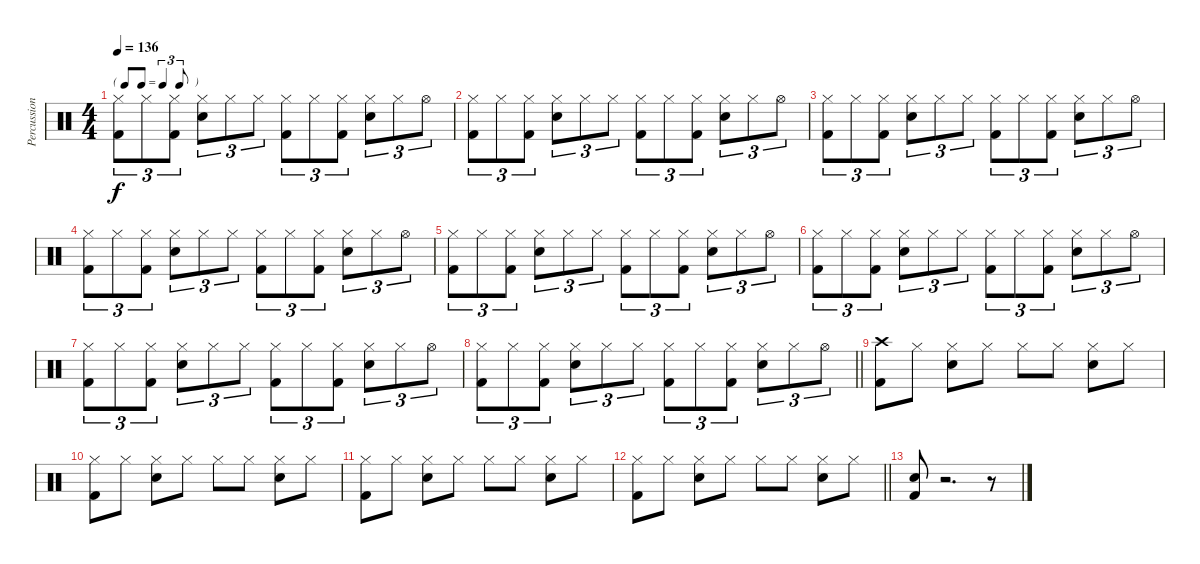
\track ("Percussions" "Percussion") {instrument percussion}
\staff {score}
\articulation defaults
\ts (4 4)
\tf triplet8th
\tempo 136
\clef neutral
\ks c
("Hi-Hat (closed)" "Kick (hit) 2").8{tu (3 2) dy f} "Hi-Hat (closed)".8{tu (3 2)} ("Hi-Hat (closed)" "Kick (hit) 2").8{tu (3 2)} ("Hi-Hat (closed)" "Snare (hit) 2").8{tu (3 2)} "Hi-Hat (closed)".8{tu (3 2)} "Hi-Hat (closed)".8{tu (3 2)} ("Hi-Hat (closed)" "Kick (hit) 2").8{tu (3 2)} "Hi-Hat (closed)".8{tu (3 2)} ("Hi-Hat (closed)" "Kick (hit) 2").8{tu (3 2)} ("Hi-Hat (closed)" "Snare (hit) 2").8{tu (3 2)} "Hi-Hat (closed)".8{tu (3 2)} "Hi-Hat (open)".8{tu (3 2)} |
("Hi-Hat (closed)" "Kick (hit) 2").8{tu (3 2)} "Hi-Hat (closed)".8{tu (3 2)} ("Hi-Hat (closed)" "Kick (hit) 2").8{tu (3 2)} ("Hi-Hat (closed)" "Snare (hit) 2").8{tu (3 2)} "Hi-Hat (closed)".8{tu (3 2)} "Hi-Hat (closed)".8{tu (3 2)} ("Hi-Hat (closed)" "Kick (hit) 2").8{tu (3 2)} "Hi-Hat (closed)".8{tu (3 2)} ("Hi-Hat (closed)" "Kick (hit) 2").8{tu (3 2)} ("Hi-Hat (closed)" "Snare (hit) 2").8{tu (3 2)} "Hi-Hat (closed)".8{tu (3 2)} "Hi-Hat (open)".8{tu (3 2)} |
("Hi-Hat (closed)" "Kick (hit) 2").8{tu (3 2)} "Hi-Hat (closed)".8{tu (3 2)} ("Hi-Hat (closed)" "Kick (hit) 2").8{tu (3 2)} ("Hi-Hat (closed)" "Snare (hit) 2").8{tu (3 2)} "Hi-Hat (closed)".8{tu (3 2)} "Hi-Hat (closed)".8{tu (3 2)} ("Hi-Hat (closed)" "Kick (hit) 2").8{tu (3 2)} "Hi-Hat (closed)".8{tu (3 2)} ("Hi-Hat (closed)" "Kick (hit) 2").8{tu (3 2)} ("Hi-Hat (closed)" "Snare (hit) 2").8{tu (3 2)} "Hi-Hat (closed)".8{tu (3 2)} "Hi-Hat (open)".8{tu (3 2)} |
("Hi-Hat (closed)" "Kick (hit) 2").8{tu (3 2)} "Hi-Hat (closed)".8{tu (3 2)} ("Hi-Hat (closed)" "Kick (hit) 2").8{tu (3 2)} ("Hi-Hat (closed)" "Snare (hit) 2").8{tu (3 2)} "Hi-Hat (closed)".8{tu (3 2)} "Hi-Hat (closed)".8{tu (3 2)} ("Hi-Hat (closed)" "Kick (hit) 2").8{tu (3 2)} "Hi-Hat (closed)".8{tu (3 2)} ("Hi-Hat (closed)" "Kick (hit) 2").8{tu (3 2)} ("Hi-Hat (closed)" "Snare (hit) 2").8{tu (3 2)} "Hi-Hat (closed)".8{tu (3 2)} "Hi-Hat (open)".8{tu (3 2)} |
("Hi-Hat (closed)" "Kick (hit) 2").8{tu (3 2)} "Hi-Hat (closed)".8{tu (3 2)} ("Hi-Hat (closed)" "Kick (hit) 2").8{tu (3 2)} ("Hi-Hat (closed)" "Snare (hit) 2").8{tu (3 2)} "Hi-Hat (closed)".8{tu (3 2)} "Hi-Hat (closed)".8{tu (3 2)} ("Hi-Hat (closed)" "Kick (hit) 2").8{tu (3 2)} "Hi-Hat (closed)".8{tu (3 2)} ("Hi-Hat (closed)" "Kick (hit) 2").8{tu (3 2)} ("Hi-Hat (closed)" "Snare (hit) 2").8{tu (3 2)} "Hi-Hat (closed)".8{tu (3 2)} "Hi-Hat (open)".8{tu (3 2)} |
("Hi-Hat (closed)" "Kick (hit) 2").8{tu (3 2)} "Hi-Hat (closed)".8{tu (3 2)} ("Hi-Hat (closed)" "Kick (hit) 2").8{tu (3 2)} ("Hi-Hat (closed)" "Snare (hit) 2").8{tu (3 2)} "Hi-Hat (closed)".8{tu (3 2)} "Hi-Hat (closed)".8{tu (3 2)} ("Hi-Hat (closed)" "Kick (hit) 2").8{tu (3 2)} "Hi-Hat (closed)".8{tu (3 2)} ("Hi-Hat (closed)" "Kick (hit) 2").8{tu (3 2)} ("Hi-Hat (closed)" "Snare (hit) 2").8{tu (3 2)} "Hi-Hat (closed)".8{tu (3 2)} "Hi-Hat (open)".8{tu (3 2)} |
("Hi-Hat (closed)" "Kick (hit) 2").8{tu (3 2)} "Hi-Hat (closed)".8{tu (3 2)} ("Hi-Hat (closed)" "Kick (hit) 2").8{tu (3 2)} ("Hi-Hat (closed)" "Snare (hit) 2").8{tu (3 2)} "Hi-Hat (closed)".8{tu (3 2)} "Hi-Hat (closed)".8{tu (3 2)} ("Hi-Hat (closed)" "Kick (hit) 2").8{tu (3 2)} "Hi-Hat (closed)".8{tu (3 2)} ("Hi-Hat (closed)" "Kick (hit) 2").8{tu (3 2)} ("Hi-Hat (closed)" "Snare (hit) 2").8{tu (3 2)} "Hi-Hat (closed)".8{tu (3 2)} "Hi-Hat (open)".8{tu (3 2)} |
\barLineRight lightlight
("Hi-Hat (closed)" "Kick (hit) 2").8{tu (3 2)} "Hi-Hat (closed)".8{tu (3 2)} ("Hi-Hat (closed)" "Kick (hit) 2").8{tu (3 2)} ("Hi-Hat (closed)" "Snare (hit) 2").8{tu (3 2)} "Hi-Hat (closed)".8{tu (3 2)} "Hi-Hat (closed)".8{tu (3 2)} ("Hi-Hat (closed)" "Kick (hit) 2").8{tu (3 2)} "Hi-Hat (closed)".8{tu (3 2)} ("Hi-Hat (closed)" "Kick (hit) 2").8{tu (3 2)} ("Hi-Hat (closed)" "Snare (hit) 2").8{tu (3 2)} "Hi-Hat (closed)".8{tu (3 2)} "Hi-Hat (open)".8{tu (3 2)} |
("Crash high (hit)" "Kick (hit) 2").8 "Hi-Hat (closed)".8 ("Hi-Hat (closed)" "Snare (hit) 2").8 "Hi-Hat (closed)".8 "Hi-Hat (closed)".8 "Hi-Hat (closed)".8 ("Hi-Hat (closed)" "Snare (hit) 2").8 "Hi-Hat (closed)".8 |
("Hi-Hat (closed)" "Kick (hit) 2").8 "Hi-Hat (closed)".8 ("Hi-Hat (closed)" "Snare (hit) 2").8 "Hi-Hat (closed)".8 "Hi-Hat (closed)".8 "Hi-Hat (closed)".8 ("Hi-Hat (closed)" "Snare (hit) 2").8 "Hi-Hat (closed)".8 |
("Hi-Hat (closed)" "Kick (hit) 2").8 "Hi-Hat (closed)".8 ("Hi-Hat (closed)" "Snare (hit) 2").8 "Hi-Hat (closed)".8 "Hi-Hat (closed)".8 "Hi-Hat (closed)".8 ("Hi-Hat (closed)" "Snare (hit) 2").8 "Hi-Hat (closed)".8 |
\barLineRight lightlight
("Hi-Hat (closed)" "Kick (hit) 2").8 "Hi-Hat (closed)".8 ("Hi-Hat (closed)" "Snare (hit) 2").8 "Hi-Hat (closed)".8 "Hi-Hat (closed)".8 "Hi-Hat (closed)".8 ("Hi-Hat (closed)" "Snare (hit) 2").8 "Hi-Hat (closed)".8 |
("Snare (hit) 2" "Kick (hit) 2").8 r.2{d} r.8
